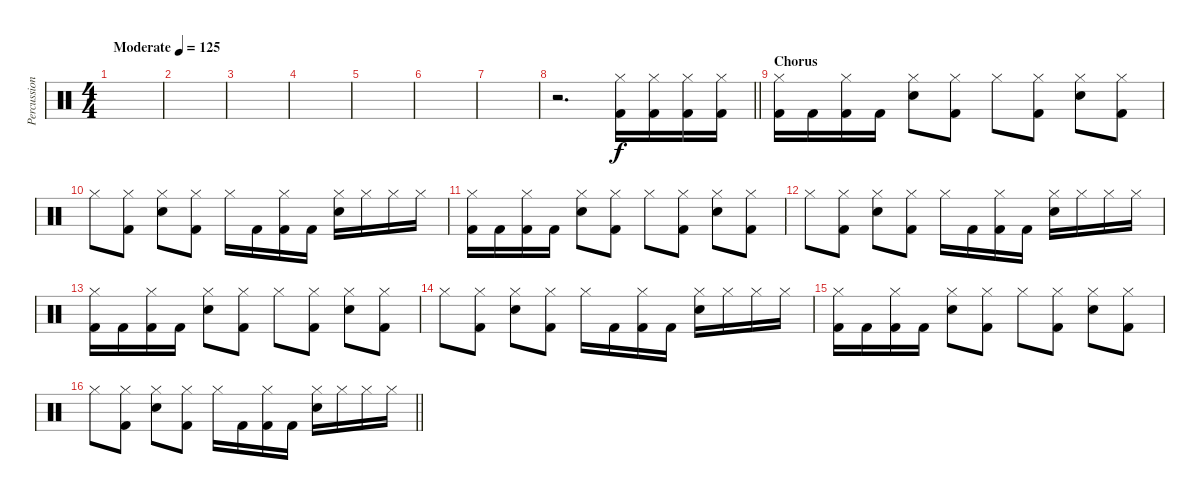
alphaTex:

\track ("Percussion" "Percussion") {instrument percussion}
\staff {score}
\articulation defaults
\ts (4 4)
\tempo (125 "Moderate")
\clef neutral
\ks c
|
|
|
|
|
|
|
\barLineRight lightlight
r.2{d} ("Hi-Hat (closed)" "Kick (hit) 2").16 ("Hi-Hat (closed)" "Kick (hit) 2").16 ("Hi-Hat (closed)" "Kick (hit) 2").16 ("Hi-Hat (closed)" "Kick (hit) 2").16 |
\section ("" "Chorus")
("Hi-Hat (closed)" "Kick (hit) 2").16{dy f} "Kick (hit) 2".16 ("Hi-Hat (closed)" "Kick (hit) 2").16 "Kick (hit) 2".16 ("Hi-Hat (closed)" "Electric Snare (hit)").8 ("Hi-Hat (closed)" "Kick (hit) 2").8 "Hi-Hat (closed)".8 ("Hi-Hat (closed)" "Kick (hit) 2").8 ("Hi-Hat (closed)" "Electric Snare (hit)").8 ("Hi-Hat (closed)" "Kick (hit) 2").8 |
"Hi-Hat (closed)".8 ("Hi-Hat (closed)" "Kick (hit) 2").8 ("Hi-Hat (closed)" "Electric Snare (hit)").8 ("Hi-Hat (closed)" "Kick (hit) 2").8 "Hi-Hat (closed)".16 "Kick (hit) 2".16 ("Hi-Hat (closed)" "Kick (hit) 2").16 "Kick (hit) 2".16 ("Hi-Hat (closed)" "Electric Snare (hit)").16 "Hi-Hat (closed)".16 "Hi-Hat (closed)".16 "Hi-Hat (closed)".16 |
("Hi-Hat (closed)" "Kick (hit) 2").16 "Kick (hit) 2".16 ("Hi-Hat (closed)" "Kick (hit) 2").16 "Kick (hit) 2".16 ("Hi-Hat (closed)" "Electric Snare (hit)").8 ("Hi-Hat (closed)" "Kick (hit) 2").8 "Hi-Hat (closed)".8 ("Hi-Hat (closed)" "Kick (hit) 2").8 ("Hi-Hat (closed)" "Electric Snare (hit)").8 ("Hi-Hat (closed)" "Kick (hit) 2").8 |
"Hi-Hat (closed)".8 ("Hi-Hat (closed)" "Kick (hit) 2").8 ("Hi-Hat (closed)" "Electric Snare (hit)").8 ("Hi-Hat (closed)" "Kick (hit) 2").8 "Hi-Hat (closed)".16 "Kick (hit) 2".16 ("Hi-Hat (closed)" "Kick (hit) 2").16 "Kick (hit) 2".16 ("Hi-Hat (closed)" "Electric Snare (hit)").16 "Hi-Hat (closed)".16 "Hi-Hat (closed)".16 "Hi-Hat (closed)".16 |
("Hi-Hat (closed)" "Kick (hit) 2").16 "Kick (hit) 2".16 ("Hi-Hat (closed)" "Kick (hit) 2").16 "Kick (hit) 2".16 ("Hi-Hat (closed)" "Electric Snare (hit)").8 ("Hi-Hat (closed)" "Kick (hit) 2").8 "Hi-Hat (closed)".8 ("Hi-Hat (closed)" "Kick (hit) 2").8 ("Hi-Hat (closed)" "Electric Snare (hit)").8 ("Hi-Hat (closed)" "Kick (hit) 2").8 |
"Hi-Hat (closed)".8 ("Hi-Hat (closed)" "Kick (hit) 2").8 ("Hi-Hat (closed)" "Electric Snare (hit)").8 ("Hi-Hat (closed)" "Kick (hit) 2").8 "Hi-Hat (closed)".16 "Kick (hit) 2".16 ("Hi-Hat (closed)" "Kick (hit) 2").16 "Kick (hit) 2".16 ("Hi-Hat (closed)" "Electric Snare (hit)").16 "Hi-Hat (closed)".16 "Hi-Hat (closed)".16 "Hi-Hat (closed)".16 |
("Hi-Hat (closed)" "Kick (hit) 2").16 "Kick (hit) 2".16 ("Hi-Hat (closed)" "Kick (hit) 2").16 "Kick (hit) 2".16 ("Hi-Hat (closed)" "Electric Snare (hit)").8 ("Hi-Hat (closed)" "Kick (hit) 2").8 "Hi-Hat (closed)".8 ("Hi-Hat (closed)" "Kick (hit) 2").8 ("Hi-Hat (closed)" "Electric Snare (hit)").8 ("Hi-Hat (closed)" "Kick (hit) 2").8 |
\barLineRight lightlight "Hi-Hat (closed)".8
("Hi-Hat (closed)" "Kick (hit) 2").8 ("Hi-Hat (closed)" "Electric Snare (hit)").8 ("Hi-Hat (closed)" "Kick (hit) 2").8 "Hi-Hat (closed)".16 "Kick (hit) 2".16 ("Hi-Hat (closed)" "Kick (hit) 2").16 "Kick (hit) 2".16 ("Hi-Hat (closed)" "Electric Snare (hit)").16 "Hi-Hat (closed)".16 "Hi-Hat (closed)".16 "Hi-Hat (closed)".16
